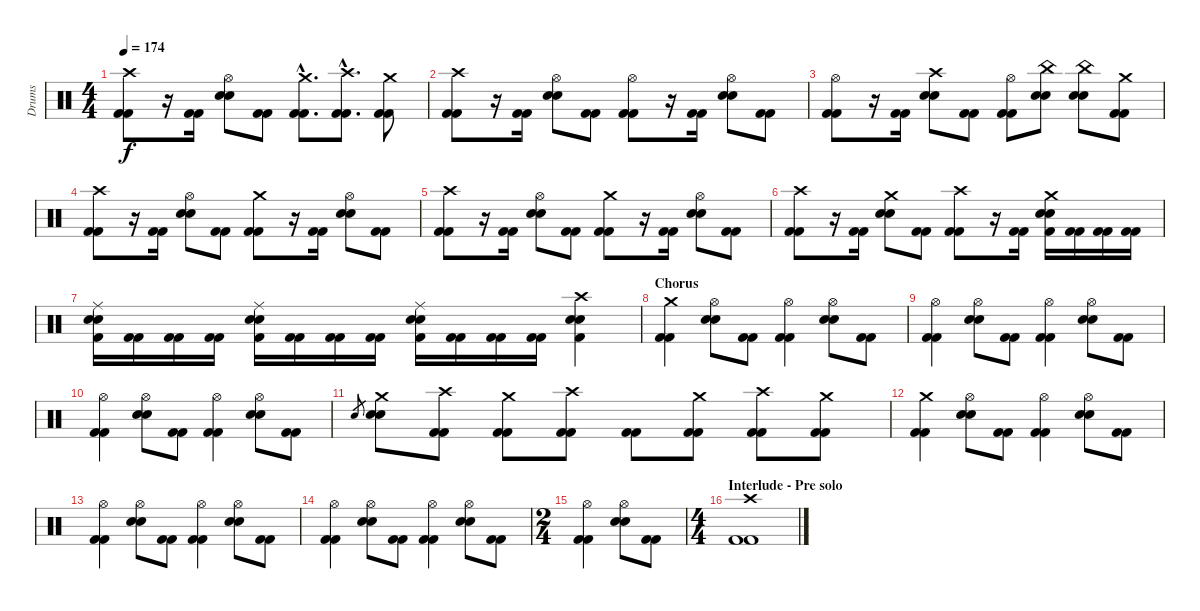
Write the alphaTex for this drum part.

\track ("Drums" "Drums") {instrument percussion}
\staff {score}
\articulation defaults
\ts (4 4)
\tempo 174
\clef neutral
\ks c
("Crash high (hit)" "Kick (hit) 2" "Kick (hit) 2").8{dy f} r.16 ("Kick (hit) 2" "Kick (hit) 2").16 ("Hi-Hat (open)" "Snare (hit) 2" "Snare (hit) 2").8 ("Kick (hit) 2" "Kick (hit) 2").8 ("Crash medium (hit)"{hac} "Kick (hit) 2"{hac} "Kick (hit) 2"{hac}).8{d} ("Crash high (hit)"{hac} "Kick (hit) 2"{hac} "Kick (hit) 2"{hac}).8{d} ("Crash medium (hit)" "Kick (hit) 2" "Kick (hit) 2").8 |
("Crash high (hit)" "Kick (hit) 2" "Kick (hit) 2").8 r.16 ("Kick (hit) 2" "Kick (hit) 2").16 ("Hi-Hat (open)" "Snare (hit) 2" "Snare (hit) 2").8 ("Kick (hit) 2" "Kick (hit) 2").8 ("Hi-Hat (open)" "Kick (hit) 2" "Kick (hit) 2").8 r.16 ("Kick (hit) 2" "Kick (hit) 2").16 ("Hi-Hat (open)" "Snare (hit) 2" "Snare (hit) 2").8 ("Kick (hit) 2" "Kick (hit) 2").8 |
("Hi-Hat (open)" "Kick (hit) 2" "Kick (hit) 2").8 r.16 ("Kick (hit) 2" "Kick (hit) 2").16 ("Crash high (hit)" "Snare (hit) 2" "Snare (hit) 2").8 ("Kick (hit) 2" "Kick (hit) 2").8 ("Hi-Hat (open)" "Kick (hit) 2" "Kick (hit) 2").8 ("China (hit)" "Snare (hit) 2" "Snare (hit) 2").8 ("China (hit)" "Snare (hit) 2" "Snare (hit) 2").8 ("Crash medium (hit)" "Kick (hit) 2" "Kick (hit) 2").8 |
("Crash high (hit)" "Kick (hit) 2" "Kick (hit) 2").8 r.16 ("Kick (hit) 2" "Kick (hit) 2").16 ("Hi-Hat (open)" "Snare (hit) 2" "Snare (hit) 2").8 ("Kick (hit) 2" "Kick (hit) 2").8 ("Crash medium (hit)" "Kick (hit) 2" "Kick (hit) 2").8 r.16 ("Kick (hit) 2" "Kick (hit) 2").16 ("Hi-Hat (open)" "Snare (hit) 2" "Snare (hit) 2").8 ("Kick (hit) 2" "Kick (hit) 2").8 |
("Crash high (hit)" "Kick (hit) 2" "Kick (hit) 2").8 r.16 ("Kick (hit) 2" "Kick (hit) 2").16 ("Hi-Hat (open)" "Snare (hit) 2" "Snare (hit) 2").8 ("Kick (hit) 2" "Kick (hit) 2").8 ("Crash medium (hit)" "Kick (hit) 2" "Kick (hit) 2").8 r.16 ("Kick (hit) 2" "Kick (hit) 2").16 ("Hi-Hat (open)" "Snare (hit) 2" "Snare (hit) 2").8 ("Kick (hit) 2" "Kick (hit) 2").8 |
("Crash high (hit)" "Kick (hit) 2" "Kick (hit) 2").8 r.16 ("Kick (hit) 2" "Kick (hit) 2").16 ("Crash medium (hit)" "Snare (hit) 2" "Snare (hit) 2").8 ("Kick (hit) 2" "Kick (hit) 2").8 ("Crash high (hit)" "Kick (hit) 2" "Kick (hit) 2").8 r.16 ("Kick (hit) 2" "Kick (hit) 2").16 ("Crash medium (hit)" "Snare (hit) 2" "Snare (hit) 2" "Kick (hit) 2").16 ("Kick (hit) 2" "Kick (hit) 2").16 ("Kick (hit) 2" "Kick (hit) 2").16 ("Kick (hit) 2" "Kick (hit) 2").16 |
("Ride (middle)" "Snare (hit) 2" "Snare (hit) 2" "Kick (hit) 2").16 ("Kick (hit) 2" "Kick (hit) 2").16 ("Kick (hit) 2" "Kick (hit) 2").16 ("Kick (hit) 2" "Kick (hit) 2").16 ("Ride (middle)" "Snare (hit) 2" "Snare (hit) 2" "Kick (hit) 2").16 ("Kick (hit) 2" "Kick (hit) 2").16 ("Kick (hit) 2" "Kick (hit) 2").16 ("Kick (hit) 2" "Kick (hit) 2").16 ("Ride (middle)" "Snare (hit) 2" "Snare (hit) 2" "Kick (hit) 2").16 ("Kick (hit) 2" "Kick (hit) 2").16 ("Kick (hit) 2" "Kick (hit) 2").16 ("Kick (hit) 2" "Kick (hit) 2").16 ("Crash high (hit)" "Snare (hit) 2" "Snare (hit) 2" "Kick (hit) 2").4 |
\section ("" "Chorus")
("Crash medium (hit)" "Kick (hit) 2" "Kick (hit) 2").4 ("Hi-Hat (open)" "Snare (hit) 2" "Snare (hit) 2").8 ("Kick (hit) 2" "Kick (hit) 2").8 ("Hi-Hat (open)" "Kick (hit) 2" "Kick (hit) 2").4 ("Hi-Hat (open)" "Snare (hit) 2" "Snare (hit) 2").8 ("Kick (hit) 2" "Kick (hit) 2").8 |
("Hi-Hat (open)" "Kick (hit) 2" "Kick (hit) 2").4 ("Hi-Hat (open)" "Snare (hit) 2" "Snare (hit) 2").8 ("Kick (hit) 2" "Kick (hit) 2").8 ("Hi-Hat (open)" "Kick (hit) 2" "Kick (hit) 2").4 ("Hi-Hat (open)" "Snare (hit) 2" "Snare (hit) 2").8 ("Kick (hit) 2" "Kick (hit) 2").8 |
("Hi-Hat (open)" "Kick (hit) 2" "Kick (hit) 2").4 ("Hi-Hat (open)" "Snare (hit) 2" "Snare (hit) 2").8 ("Kick (hit) 2" "Kick (hit) 2").8 ("Hi-Hat (open)" "Kick (hit) 2" "Kick (hit) 2").4 ("Hi-Hat (open)" "Snare (hit) 2" "Snare (hit) 2").8 ("Kick (hit) 2" "Kick (hit) 2").8 |
"Snare (hit) 2".8{gr} ("Crash medium (hit)" "Snare (hit) 2" "Snare (hit) 2").8 ("Crash high (hit)" "Kick (hit) 2" "Kick (hit) 2").8 ("Crash medium (hit)" "Kick (hit) 2" "Kick (hit) 2").8 ("Crash high (hit)" "Kick (hit) 2" "Kick (hit) 2").8 ("Kick (hit) 2" "Kick (hit) 2").8 ("Crash medium (hit)" "Kick (hit) 2" "Kick (hit) 2").8 ("Crash high (hit)" "Kick (hit) 2" "Kick (hit) 2").8 ("Crash medium (hit)" "Kick (hit) 2" "Kick (hit) 2").8 |
("Crash medium (hit)" "Kick (hit) 2" "Kick (hit) 2").4 ("Hi-Hat (open)" "Snare (hit) 2" "Snare (hit) 2").8 ("Kick (hit) 2" "Kick (hit) 2").8 ("Hi-Hat (open)" "Kick (hit) 2" "Kick (hit) 2").4 ("Hi-Hat (open)" "Snare (hit) 2" "Snare (hit) 2").8 ("Kick (hit) 2" "Kick (hit) 2").8 |
("Hi-Hat (open)" "Kick (hit) 2" "Kick (hit) 2").4 ("Hi-Hat (open)" "Snare (hit) 2" "Snare (hit) 2").8 ("Kick (hit) 2" "Kick (hit) 2").8 ("Hi-Hat (open)" "Kick (hit) 2" "Kick (hit) 2").4 ("Hi-Hat (open)" "Snare (hit) 2" "Snare (hit) 2").8 ("Kick (hit) 2" "Kick (hit) 2").8 |
("Hi-Hat (open)" "Kick (hit) 2" "Kick (hit) 2").4 ("Hi-Hat (open)" "Snare (hit) 2" "Snare (hit) 2").8 ("Kick (hit) 2" "Kick (hit) 2").8 ("Hi-Hat (open)" "Kick (hit) 2" "Kick (hit) 2").4 ("Hi-Hat (open)" "Snare (hit) 2" "Snare (hit) 2").8 ("Kick (hit) 2" "Kick (hit) 2").8 |
\ts (2 4)
("Hi-Hat (open)" "Kick (hit) 2" "Kick (hit) 2").4 ("Hi-Hat (open)" "Snare (hit) 2" "Snare (hit) 2").8 ("Kick (hit) 2" "Kick (hit) 2").8 |
\ts (4 4)
\section ("" "Interlude - Pre solo")
("Crash high (hit)" "Kick (hit) 2" "Kick (hit) 2").1
